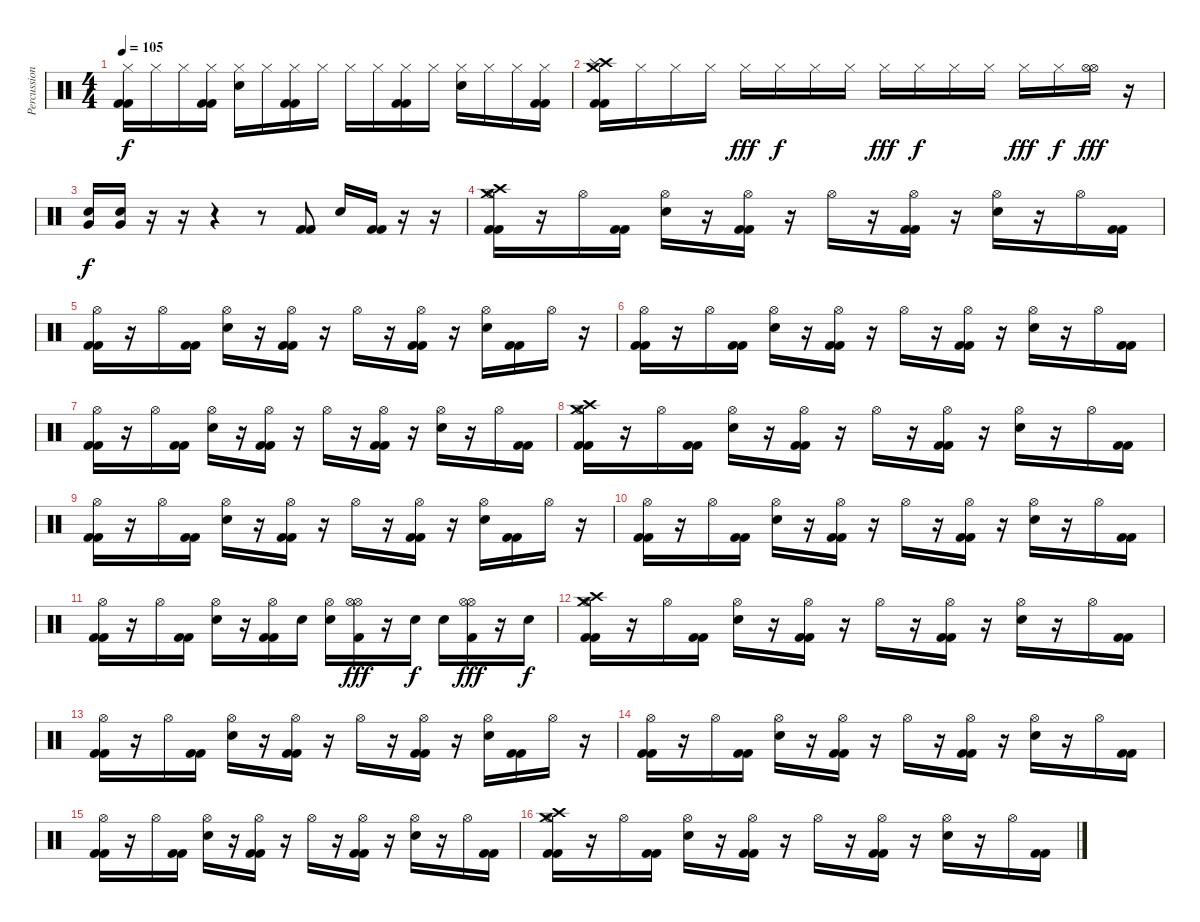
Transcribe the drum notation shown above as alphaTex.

\track ("Percussion" "Percussion") {instrument percussion}
\staff {score}
\articulation defaults
\ts (4 4)
\tempo 105
\clef neutral
\ks c
("Hi-Hat (closed)" "Kick (hit) 2" "Kick (hit) 2").16{dy f} "Hi-Hat (closed)".16 "Hi-Hat (closed)".16 ("Hi-Hat (closed)" "Kick (hit) 2" "Kick (hit) 2").16 ("Hi-Hat (closed)" "Electric Snare (hit)").16 "Hi-Hat (closed)".16 ("Hi-Hat (closed)" "Kick (hit) 2" "Kick (hit) 2").16 "Hi-Hat (closed)".16 "Hi-Hat (closed)".16 "Hi-Hat (closed)".16 ("Hi-Hat (closed)" "Kick (hit) 2" "Kick (hit) 2").16 "Hi-Hat (closed)".16 ("Hi-Hat (closed)" "Electric Snare (hit)").16 "Hi-Hat (closed)".16 "Hi-Hat (closed)".16 ("Hi-Hat (closed)" "Kick (hit) 2" "Kick (hit) 2").16 |
("Crash high (hit)" "Splash (hit)" "Crash medium (hit)" "Kick (hit) 2" "Kick (hit) 2").16 "Hi-Hat (closed)".16 "Hi-Hat (closed)".16 "Hi-Hat (closed)".16 "Hi-Hat (closed)".16{dy fff} "Hi-Hat (closed)".16{dy f} "Hi-Hat (closed)".16 "Hi-Hat (closed)".16 "Hi-Hat (closed)".16{dy fff} "Hi-Hat (closed)".16{dy f} "Hi-Hat (closed)".16 "Hi-Hat (closed)".16 "Hi-Hat (closed)".16{dy fff} "Hi-Hat (closed)".16{dy f} ("Hi-Hat (open)" "Hi-Hat (open)").16{dy fff} r.16 |
("Very Low Tom (hit)" "Electric Snare (hit)").16{dy f} ("Very Low Tom (hit)" "Electric Snare (hit)").16 r.16 r.16 r.4 r.8 ("Kick (hit) 2" "Kick (hit) 2").8 "Electric Snare (hit)".16 ("Kick (hit) 2" "Kick (hit) 2").16 r.16 r.16 |
("Hi-Hat (open)" "Crash high (hit)" "Crash medium (hit)" "Kick (hit) 2" "Kick (hit) 2").16 r.16 "Hi-Hat (open)".16 ("Kick (hit) 2" "Kick (hit) 2").16 ("Hi-Hat (open)" "Electric Snare (hit)").16 r.16 ("Hi-Hat (open)" "Kick (hit) 2" "Kick (hit) 2").16 r.16 "Hi-Hat (open)".16 r.16 ("Hi-Hat (open)" "Kick (hit) 2" "Kick (hit) 2").16 r.16 ("Hi-Hat (open)" "Electric Snare (hit)").16 r.16 "Hi-Hat (open)".16 ("Kick (hit) 2" "Kick (hit) 2").16 |
("Hi-Hat (open)" "Kick (hit) 2" "Kick (hit) 2").16 r.16 "Hi-Hat (open)".16 ("Kick (hit) 2" "Kick (hit) 2").16 ("Hi-Hat (open)" "Electric Snare (hit)").16 r.16 ("Hi-Hat (open)" "Kick (hit) 2" "Kick (hit) 2").16 r.16 "Hi-Hat (open)".16 r.16 ("Hi-Hat (open)" "Kick (hit) 2" "Kick (hit) 2").16 r.16 ("Hi-Hat (open)" "Electric Snare (hit)").16 ("Kick (hit) 2" "Kick (hit) 2").16 "Hi-Hat (open)".16 r.16 |
("Hi-Hat (open)" "Kick (hit) 2" "Kick (hit) 2").16 r.16 "Hi-Hat (open)".16 ("Kick (hit) 2" "Kick (hit) 2").16 ("Hi-Hat (open)" "Electric Snare (hit)").16 r.16 ("Hi-Hat (open)" "Kick (hit) 2" "Kick (hit) 2").16 r.16 "Hi-Hat (open)".16 r.16 ("Hi-Hat (open)" "Kick (hit) 2" "Kick (hit) 2").16 r.16 ("Hi-Hat (open)" "Electric Snare (hit)").16 r.16 "Hi-Hat (open)".16 ("Kick (hit) 2" "Kick (hit) 2").16 |
("Hi-Hat (open)" "Kick (hit) 2" "Kick (hit) 2").16 r.16 "Hi-Hat (open)".16 ("Kick (hit) 2" "Kick (hit) 2").16 ("Hi-Hat (open)" "Electric Snare (hit)").16 r.16 ("Hi-Hat (open)" "Kick (hit) 2" "Kick (hit) 2").16 r.16 "Hi-Hat (open)".16 r.16 ("Hi-Hat (open)" "Kick (hit) 2" "Kick (hit) 2").16 r.16 ("Hi-Hat (open)" "Electric Snare (hit)").16 r.16 "Hi-Hat (open)".16 ("Kick (hit) 2" "Kick (hit) 2").16 |
("Hi-Hat (open)" "Crash high (hit)" "Crash medium (hit)" "Kick (hit) 2" "Kick (hit) 2").16 r.16 "Hi-Hat (open)".16 ("Kick (hit) 2" "Kick (hit) 2").16 ("Hi-Hat (open)" "Electric Snare (hit)").16 r.16 ("Hi-Hat (open)" "Kick (hit) 2" "Kick (hit) 2").16 r.16 "Hi-Hat (open)".16 r.16 ("Hi-Hat (open)" "Kick (hit) 2" "Kick (hit) 2").16 r.16 ("Hi-Hat (open)" "Electric Snare (hit)").16 r.16 "Hi-Hat (open)".16 ("Kick (hit) 2" "Kick (hit) 2").16 |
("Hi-Hat (open)" "Kick (hit) 2" "Kick (hit) 2").16 r.16 "Hi-Hat (open)".16 ("Kick (hit) 2" "Kick (hit) 2").16 ("Hi-Hat (open)" "Electric Snare (hit)").16 r.16 ("Hi-Hat (open)" "Kick (hit) 2" "Kick (hit) 2").16 r.16 "Hi-Hat (open)".16 r.16 ("Hi-Hat (open)" "Kick (hit) 2" "Kick (hit) 2").16 r.16 ("Hi-Hat (open)" "Electric Snare (hit)").16 ("Kick (hit) 2" "Kick (hit) 2").16 "Hi-Hat (open)".16 r.16 |
("Hi-Hat (open)" "Kick (hit) 2" "Kick (hit) 2").16 r.16 "Hi-Hat (open)".16 ("Kick (hit) 2" "Kick (hit) 2").16 ("Hi-Hat (open)" "Electric Snare (hit)").16 r.16 ("Hi-Hat (open)" "Kick (hit) 2" "Kick (hit) 2").16 r.16 "Hi-Hat (open)".16 r.16 ("Hi-Hat (open)" "Kick (hit) 2" "Kick (hit) 2").16 r.16 ("Hi-Hat (open)" "Electric Snare (hit)").16 r.16 "Hi-Hat (open)".16 ("Kick (hit) 2" "Kick (hit) 2").16 |
("Hi-Hat (open)" "Kick (hit) 2" "Kick (hit) 2").16 r.16 "Hi-Hat (open)".16 ("Kick (hit) 2" "Kick (hit) 2").16 ("Hi-Hat (open)" "Electric Snare (hit)").16 r.16 ("Hi-Hat (open)" "Kick (hit) 2" "Kick (hit) 2").16 "Electric Snare (hit)".16 ("Hi-Hat (open)" "Electric Snare (hit)").16 ("Hi-Hat (open)" "Hi-Hat (open)" "Kick (hit) 2").16{dy fff} r.16 "Electric Snare (hit)".16{dy f} "Electric Snare (hit)".16 ("Hi-Hat (open)" "Hi-Hat (open)" "Kick (hit) 2").16{dy fff} r.16 "Electric Snare (hit)".16{dy f} |
("Hi-Hat (open)" "Crash high (hit)" "Crash medium (hit)" "Kick (hit) 2" "Kick (hit) 2").16 r.16 "Hi-Hat (open)".16 ("Kick (hit) 2" "Kick (hit) 2").16 ("Hi-Hat (open)" "Electric Snare (hit)").16 r.16 ("Hi-Hat (open)" "Kick (hit) 2" "Kick (hit) 2").16 r.16 "Hi-Hat (open)".16 r.16 ("Hi-Hat (open)" "Kick (hit) 2" "Kick (hit) 2").16 r.16 ("Hi-Hat (open)" "Electric Snare (hit)").16 r.16 "Hi-Hat (open)".16 ("Kick (hit) 2" "Kick (hit) 2").16 |
("Hi-Hat (open)" "Kick (hit) 2" "Kick (hit) 2").16 r.16 "Hi-Hat (open)".16 ("Kick (hit) 2" "Kick (hit) 2").16 ("Hi-Hat (open)" "Electric Snare (hit)").16 r.16 ("Hi-Hat (open)" "Kick (hit) 2" "Kick (hit) 2").16 r.16 "Hi-Hat (open)".16 r.16 ("Hi-Hat (open)" "Kick (hit) 2" "Kick (hit) 2").16 r.16 ("Hi-Hat (open)" "Electric Snare (hit)").16 ("Kick (hit) 2" "Kick (hit) 2").16 "Hi-Hat (open)".16 r.16 |
("Hi-Hat (open)" "Kick (hit) 2" "Kick (hit) 2").16 r.16 "Hi-Hat (open)".16 ("Kick (hit) 2" "Kick (hit) 2").16 ("Hi-Hat (open)" "Electric Snare (hit)").16 r.16 ("Hi-Hat (open)" "Kick (hit) 2" "Kick (hit) 2").16 r.16 "Hi-Hat (open)".16 r.16 ("Hi-Hat (open)" "Kick (hit) 2" "Kick (hit) 2").16 r.16 ("Hi-Hat (open)" "Electric Snare (hit)").16 r.16 "Hi-Hat (open)".16 ("Kick (hit) 2" "Kick (hit) 2").16 |
("Hi-Hat (open)" "Kick (hit) 2" "Kick (hit) 2").16 r.16 "Hi-Hat (open)".16 ("Kick (hit) 2" "Kick (hit) 2").16 ("Hi-Hat (open)" "Electric Snare (hit)").16 r.16 ("Hi-Hat (open)" "Kick (hit) 2" "Kick (hit) 2").16 r.16 "Hi-Hat (open)".16 r.16 ("Hi-Hat (open)" "Kick (hit) 2" "Kick (hit) 2").16 r.16 ("Hi-Hat (open)" "Electric Snare (hit)").16 r.16 "Hi-Hat (open)".16 ("Kick (hit) 2" "Kick (hit) 2").16 |
("Hi-Hat (open)" "Crash high (hit)" "Crash medium (hit)" "Kick (hit) 2" "Kick (hit) 2").16 r.16 "Hi-Hat (open)".16 ("Kick (hit) 2" "Kick (hit) 2").16 ("Hi-Hat (open)" "Electric Snare (hit)").16 r.16 ("Hi-Hat (open)" "Kick (hit) 2" "Kick (hit) 2").16 r.16 "Hi-Hat (open)".16 r.16 ("Hi-Hat (open)" "Kick (hit) 2" "Kick (hit) 2").16 r.16 ("Hi-Hat (open)" "Electric Snare (hit)").16 r.16 "Hi-Hat (open)".16 ("Kick (hit) 2" "Kick (hit) 2").16
